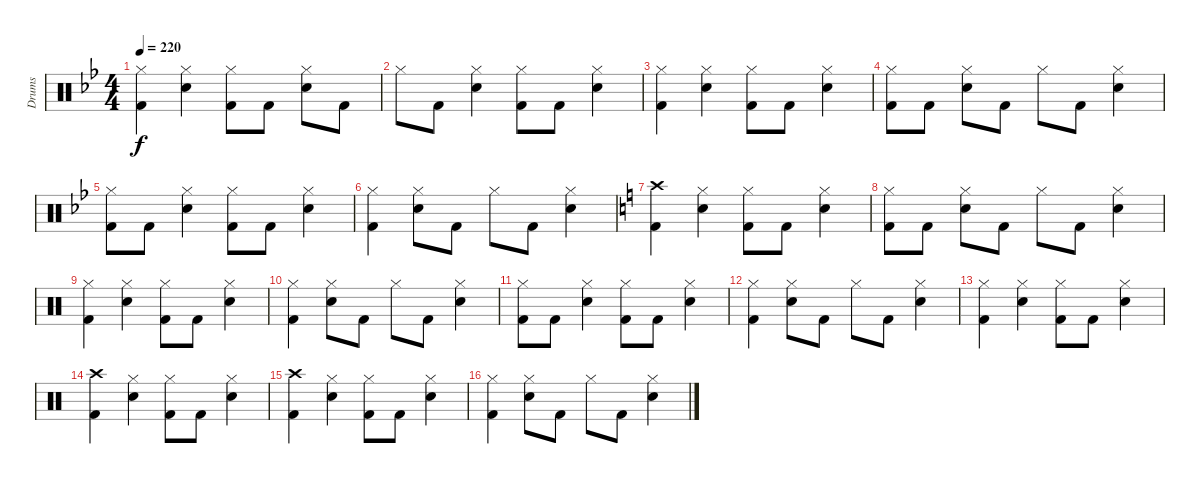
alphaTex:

\track ("Drums" "Drums") {instrument percussion}
\staff {score}
\articulation defaults
\ts (4 4)
\tempo 220
\clef neutral
\ks gminor
("Kick (hit) 2" "Hi-Hat (closed)").4{dy f} ("Snare (hit) 2" "Hi-Hat (closed)").4 ("Kick (hit) 2" "Hi-Hat (closed)").8 "Kick (hit) 2".8 ("Snare (hit) 2" "Hi-Hat (closed)").8 "Kick (hit) 2".8 |
"Hi-Hat (closed)".8 "Kick (hit) 2".8 ("Snare (hit) 2" "Hi-Hat (closed)").4 ("Kick (hit) 2" "Hi-Hat (closed)").8 "Kick (hit) 2".8 ("Snare (hit) 2" "Hi-Hat (closed)").4 |
("Kick (hit) 2" "Hi-Hat (closed)").4 ("Snare (hit) 2" "Hi-Hat (closed)").4 ("Kick (hit) 2" "Hi-Hat (closed)").8 "Kick (hit) 2".8 ("Snare (hit) 2" "Hi-Hat (closed)").4 |
("Kick (hit) 2" "Hi-Hat (closed)").8 "Kick (hit) 2".8 ("Snare (hit) 2" "Hi-Hat (closed)").8 "Kick (hit) 2".8 "Hi-Hat (closed)".8 "Kick (hit) 2".8 ("Snare (hit) 2" "Hi-Hat (closed)").4 |
("Kick (hit) 2" "Hi-Hat (closed)").8 "Kick (hit) 2".8 ("Snare (hit) 2" "Hi-Hat (closed)").4 ("Kick (hit) 2" "Hi-Hat (closed)").8 "Kick (hit) 2".8 ("Snare (hit) 2" "Hi-Hat (closed)").4 |
("Kick (hit) 2" "Hi-Hat (closed)").4 ("Snare (hit) 2" "Hi-Hat (closed)").8 "Kick (hit) 2".8 "Hi-Hat (closed)".8 "Kick (hit) 2".8 ("Snare (hit) 2" "Hi-Hat (closed)").4 |
\ks aminor
("Kick (hit) 2" "Crash high (hit)").4 ("Snare (hit) 2" "Hi-Hat (closed)").4 ("Kick (hit) 2" "Hi-Hat (closed)").8 "Kick (hit) 2".8 ("Snare (hit) 2" "Hi-Hat (closed)").4 |
("Kick (hit) 2" "Hi-Hat (closed)").8 "Kick (hit) 2".8 ("Snare (hit) 2" "Hi-Hat (closed)").8 "Kick (hit) 2".8 "Hi-Hat (closed)".8 "Kick (hit) 2".8 ("Snare (hit) 2" "Hi-Hat (closed)").4 |
("Kick (hit) 2" "Hi-Hat (closed)").4 ("Snare (hit) 2" "Hi-Hat (closed)").4 ("Kick (hit) 2" "Hi-Hat (closed)").8 "Kick (hit) 2".8 ("Snare (hit) 2" "Hi-Hat (closed)").4 |
("Kick (hit) 2" "Hi-Hat (closed)").4 ("Snare (hit) 2" "Hi-Hat (closed)").8 "Kick (hit) 2".8 "Hi-Hat (closed)".8 "Kick (hit) 2".8 ("Snare (hit) 2" "Hi-Hat (closed)").4 |
("Kick (hit) 2" "Hi-Hat (closed)").8 "Kick (hit) 2".8 ("Snare (hit) 2" "Hi-Hat (closed)").4 ("Kick (hit) 2" "Hi-Hat (closed)").8 "Kick (hit) 2".8 ("Snare (hit) 2" "Hi-Hat (closed)").4 |
("Kick (hit) 2" "Hi-Hat (closed)").4 ("Snare (hit) 2" "Hi-Hat (closed)").8 "Kick (hit) 2".8 "Hi-Hat (closed)".8 "Kick (hit) 2".8 ("Snare (hit) 2" "Hi-Hat (closed)").4 |
("Kick (hit) 2" "Hi-Hat (closed)").4 ("Snare (hit) 2" "Hi-Hat (closed)").4 ("Kick (hit) 2" "Hi-Hat (closed)").8 "Kick (hit) 2".8 ("Snare (hit) 2" "Hi-Hat (closed)").4 |
("Kick (hit) 2" "Crash high (hit)").4 ("Snare (hit) 2" "Hi-Hat (closed)").4 ("Kick (hit) 2" "Hi-Hat (closed)").8 "Kick (hit) 2".8 ("Snare (hit) 2" "Hi-Hat (closed)").4 |
("Kick (hit) 2" "Crash high (hit)").4 ("Snare (hit) 2" "Hi-Hat (closed)").4 ("Kick (hit) 2" "Hi-Hat (closed)").8 "Kick (hit) 2".8 ("Snare (hit) 2" "Hi-Hat (closed)").4 |
("Kick (hit) 2" "Hi-Hat (closed)").4 ("Snare (hit) 2" "Hi-Hat (closed)").8 "Kick (hit) 2".8 "Hi-Hat (closed)".8 "Kick (hit) 2".8 ("Snare (hit) 2" "Hi-Hat (closed)").4
